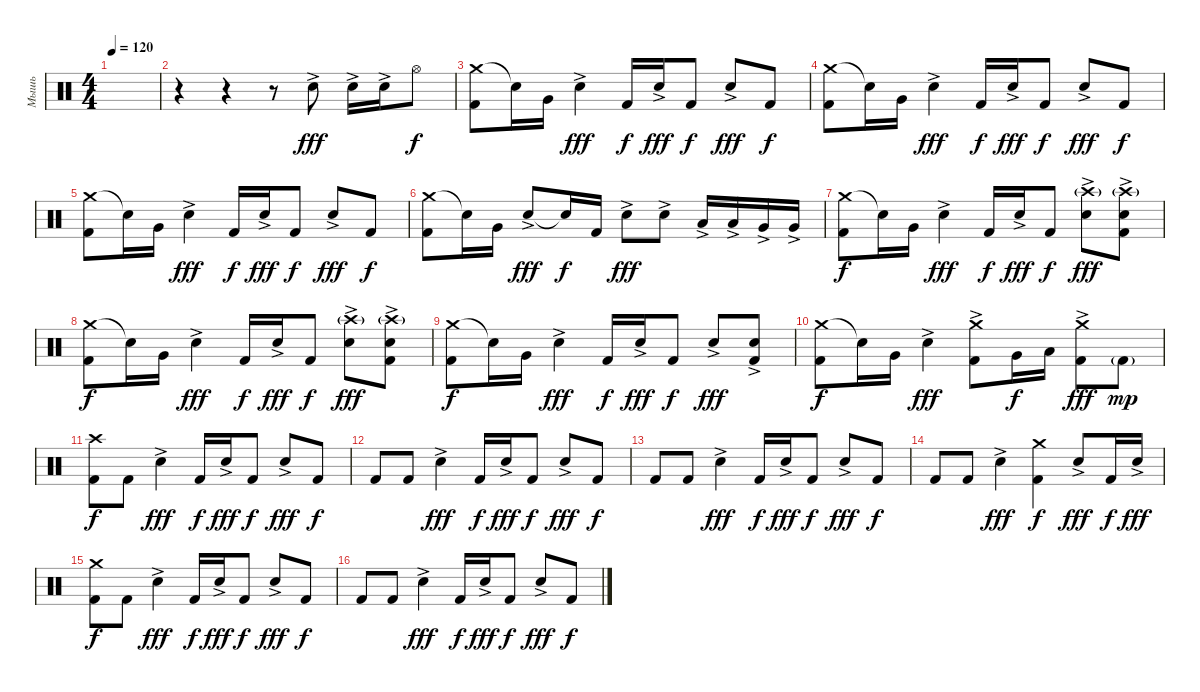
\track ("Мышь" "Мышь") {instrument percussion}
\staff {score}
\articulation defaults
\ts (4 4)
\tempo 120
\clef neutral
\ks c
|
r.4 r.4 r.8 "Electric Snare (hit)"{ac}.8{dy fff} "Electric Snare (hit)"{ac}.16 "Electric Snare (hit)"{ac}.16 "Hi-Hat (open)".8{dy f} |
("Crash medium (hit)" "Kick (hit) 2").8 "Snare (hit)"{t}.16 "Very Low Tom (hit)".16 "Electric Snare (hit)"{ac}.4{dy fff} "Kick (hit) 2".16{dy f} "Electric Snare (hit)"{ac}.16{dy fff} "Kick (hit) 2".8{dy f} "Electric Snare (hit)"{ac}.8{dy fff} "Kick (hit) 2".8{dy f} |
("Crash medium (hit)" "Kick (hit) 2").8 "Snare (hit)"{t}.16 "Very Low Tom (hit)".16 "Electric Snare (hit)"{ac}.4{dy fff} "Kick (hit) 2".16{dy f} "Electric Snare (hit)"{ac}.16{dy fff} "Kick (hit) 2".8{dy f} "Electric Snare (hit)"{ac}.8{dy fff} "Kick (hit) 2".8{dy f} |
("Crash medium (hit)" "Kick (hit) 2").8 "Snare (hit)"{t}.16 "Very Low Tom (hit)".16 "Electric Snare (hit)"{ac}.4{dy fff} "Kick (hit) 2".16{dy f} "Electric Snare (hit)"{ac}.16{dy fff} "Kick (hit) 2".8{dy f} "Electric Snare (hit)"{ac}.8{dy fff} "Kick (hit) 2".8{dy f} |
("Crash medium (hit)" "Kick (hit) 2").8 "Snare (hit)"{t}.16 "Very Low Tom (hit)".16 "Electric Snare (hit)"{ac}.8{dy fff} "Snare (hit)"{t}.16{dy f} "Kick (hit) 2".16 "Electric Snare (hit)"{ac}.8{dy fff} "Electric Snare (hit)"{ac}.8 "Low Tom (hit)"{ac}.16 "Low Tom (hit)"{ac}.16 "Very Low Tom (hit)"{ac}.16 "Very Low Tom (hit)"{ac}.16 |
("Crash medium (hit)" "Kick (hit) 2").8{dy f} "Snare (hit)"{t}.16 "Very Low Tom (hit)".16 "Electric Snare (hit)"{ac}.4{dy fff} "Kick (hit) 2".16{dy f} "Electric Snare (hit)"{ac}.16{dy fff} "Kick (hit) 2".8{dy f} ("Crash high (hit)"{g} "Electric Snare (hit)"{ac}).8{dy fff} ("Crash high (hit)"{g} "Electric Snare (hit)"{ac} "Kick (hit) 2").8 |
("Crash medium (hit)" "Kick (hit) 2").8{dy f} "Snare (hit)"{t}.16 "Very Low Tom (hit)".16 "Electric Snare (hit)"{ac}.4{dy fff} "Kick (hit) 2".16{dy f} "Electric Snare (hit)"{ac}.16{dy fff} "Kick (hit) 2".8{dy f} ("Crash high (hit)"{g} "Electric Snare (hit)"{ac}).8{dy fff} ("Crash high (hit)"{g} "Electric Snare (hit)"{ac} "Kick (hit) 2").8 |
("Crash medium (hit)" "Kick (hit) 2").8{dy f} "Snare (hit)"{t}.16 "Very Low Tom (hit)".16 "Electric Snare (hit)"{ac}.4{dy fff} "Kick (hit) 2".16{dy f} "Electric Snare (hit)"{ac}.16{dy fff} "Kick (hit) 2".8{dy f} "Electric Snare (hit)"{ac}.8{dy fff} ("Electric Snare (hit)"{ac} "Kick (hit) 2").8 |
("Crash medium (hit)" "Kick (hit) 2").8{dy f} "Snare (hit)"{t}.16 "Very Low Tom (hit)".16 "Electric Snare (hit)"{ac}.4{dy fff} ("Crash medium (hit)" "Kick (hit) 2"{ac}).8 "Very Low Tom (hit)".16{dy f} "Low Tom (hit)".16 ("Crash medium (hit)" "Kick (hit) 2"{ac}).8{dy fff} "Kick (hit) 2"{g}.8{dy mp} |
("Crash high (hit)" "Kick (hit) 2").8{dy f} "Kick (hit) 2".8 "Electric Snare (hit)"{ac}.4{dy fff} "Kick (hit) 2".16{dy f} "Electric Snare (hit)"{ac}.16{dy fff} "Kick (hit) 2".8{dy f} "Electric Snare (hit)"{ac}.8{dy fff} "Kick (hit) 2".8{dy f} |
"Kick (hit) 2".8 "Kick (hit) 2".8 "Electric Snare (hit)"{ac}.4{dy fff} "Kick (hit) 2".16{dy f} "Electric Snare (hit)"{ac}.16{dy fff} "Kick (hit) 2".8{dy f} "Electric Snare (hit)"{ac}.8{dy fff} "Kick (hit) 2".8{dy f} |
"Kick (hit) 2".8 "Kick (hit) 2".8 "Electric Snare (hit)"{ac}.4{dy fff} "Kick (hit) 2".16{dy f} "Electric Snare (hit)"{ac}.16{dy fff} "Kick (hit) 2".8{dy f} "Electric Snare (hit)"{ac}.8{dy fff} "Kick (hit) 2".8{dy f} |
"Kick (hit) 2".8 "Kick (hit) 2".8 "Electric Snare (hit)"{ac}.4{dy fff} ("Crash medium (hit)" "Kick (hit) 2").4{dy f} "Electric Snare (hit)"{ac}.8{dy fff} "Kick (hit) 2".16{dy f} "Electric Snare (hit)"{ac}.16{dy fff} |
("Crash medium (hit)" "Kick (hit) 2").8{dy f} "Kick (hit) 2".8 "Electric Snare (hit)"{ac}.4{dy fff} "Kick (hit) 2".16{dy f} "Electric Snare (hit)"{ac}.16{dy fff} "Kick (hit) 2".8{dy f} "Electric Snare (hit)"{ac}.8{dy fff} "Kick (hit) 2".8{dy f} |
"Kick (hit) 2".8 "Kick (hit) 2".8 "Electric Snare (hit)"{ac}.4{dy fff} "Kick (hit) 2".16{dy f} "Electric Snare (hit)"{ac}.16{dy fff} "Kick (hit) 2".8{dy f} "Electric Snare (hit)"{ac}.8{dy fff} "Kick (hit) 2".8{dy f}
